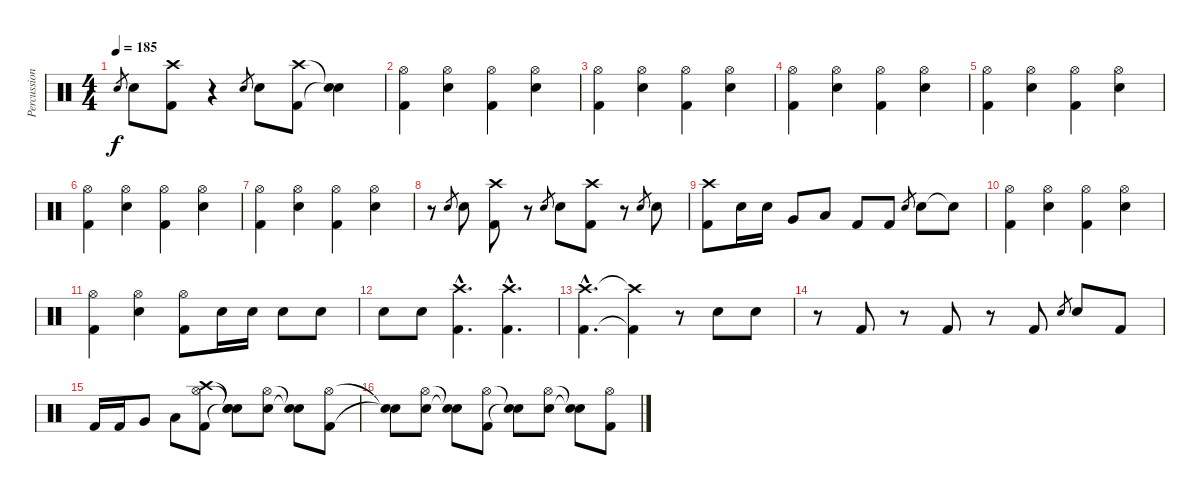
\track ("Percussion" "Percussion") {instrument percussion}
\staff {score}
\articulation defaults
\ts (4 4)
\tempo 185
\clef neutral
\ks c "Electric Snare (hit)".8{gr dy f} "Electric Snare (hit)".8
("Crash high (hit)" "Kick (hit) 2").8 r.4 "Electric Snare (hit)".8{gr} "Electric Snare (hit)".8 ("Crash high (hit)" "Kick (hit) 2").8 ("Snare (hit)"{t} "Snare (hit)"{t}).4 |
("Hi-Hat (open)" "Kick (hit) 2").4 ("Hi-Hat (open)" "Electric Snare (hit)").4 ("Hi-Hat (open)" "Kick (hit) 2").4 ("Hi-Hat (open)" "Electric Snare (hit)").4 |
("Hi-Hat (open)" "Kick (hit) 2").4 ("Hi-Hat (open)" "Electric Snare (hit)").4 ("Hi-Hat (open)" "Kick (hit) 2").4 ("Hi-Hat (open)" "Electric Snare (hit)").4 |
("Hi-Hat (open)" "Kick (hit) 2").4 ("Hi-Hat (open)" "Electric Snare (hit)").4 ("Hi-Hat (open)" "Kick (hit) 2").4 ("Hi-Hat (open)" "Electric Snare (hit)").4 |
("Hi-Hat (open)" "Kick (hit) 2").4 ("Hi-Hat (open)" "Electric Snare (hit)").4 ("Hi-Hat (open)" "Kick (hit) 2").4 ("Hi-Hat (open)" "Electric Snare (hit)").4 |
("Hi-Hat (open)" "Kick (hit) 2").4 ("Hi-Hat (open)" "Electric Snare (hit)").4 ("Hi-Hat (open)" "Kick (hit) 2").4 ("Hi-Hat (open)" "Electric Snare (hit)").4 |
("Hi-Hat (open)" "Kick (hit) 2").4 ("Hi-Hat (open)" "Electric Snare (hit)").4 ("Hi-Hat (open)" "Kick (hit) 2").4 ("Hi-Hat (open)" "Electric Snare (hit)").4 |
r.8 "Electric Snare (hit)".8{gr} "Electric Snare (hit)".8 ("Crash high (hit)" "Kick (hit) 2").8 r.8 "Electric Snare (hit)".8{gr} "Electric Snare (hit)".8 ("Crash high (hit)" "Kick (hit) 2").8 r.8 "Electric Snare (hit)".8{gr} "Electric Snare (hit)".8 |
("Crash high (hit)" "Kick (hit) 2").8 "Electric Snare (hit)".16 "Electric Snare (hit)".16 "Very Low Tom (hit)".8 "Low Floor Tom (hit)".8 "Kick (hit) 2".8 "Kick (hit) 2".8 "Electric Snare (hit)".8{gr} "Electric Snare (hit)".8 "Snare (hit)"{t}.8 |
("Hi-Hat (open)" "Kick (hit) 2").4 ("Hi-Hat (open)" "Electric Snare (hit)").4 ("Hi-Hat (open)" "Kick (hit) 2").4 ("Hi-Hat (open)" "Electric Snare (hit)").4 |
("Hi-Hat (open)" "Kick (hit) 2").4 ("Hi-Hat (open)" "Electric Snare (hit)").4 ("Hi-Hat (open)" "Kick (hit) 2").8 "Electric Snare (hit)".16 "Electric Snare (hit)".16 "Electric Snare (hit)".8 "Electric Snare (hit)".8 |
"Electric Snare (hit)".8 "Electric Snare (hit)".8 ("Crash high (hit)"{hac} "Kick (hit) 2"{hac}).4{d} ("Crash high (hit)"{hac} "Kick (hit) 2"{hac}).4{d} |
("Crash high (hit)"{hac} "Kick (hit) 2"{hac}).4{d} ("Crash high (hit)"{t} "Kick (hit) 2"{t}).4 r.8 "Electric Snare (hit)".8 "Electric Snare (hit)".8 |
r.8 "Kick (hit) 2".8 r.8 "Kick (hit) 2".8 r.8 "Kick (hit) 2".8 "Electric Snare (hit)".8{gr} "Electric Snare (hit)".8 "Kick (hit) 2".8 |
"Kick (hit) 2".16 "Kick (hit) 2".16 "Very Low Tom (hit)".8 "Low Floor Tom (hit)".8 ("Hi-Hat (open)" "Crash high (hit)" "Kick (hit) 2").8 ("Snare (hit)"{t} "Snare (hit)"{t} "Snare (hit)"{t}).8 ("Hi-Hat (open)" "Electric Snare (hit)").8 ("Snare (hit)"{t} "Snare (hit)"{t}).8 ("Hi-Hat (open)" "Kick (hit) 2").8 |
("Snare (hit)"{t} "Snare (hit)"{t}).8 ("Hi-Hat (open)" "Electric Snare (hit)").8 ("Snare (hit)"{t} "Snare (hit)"{t}).8 ("Hi-Hat (open)" "Kick (hit) 2").8 ("Snare (hit)"{t} "Snare (hit)"{t}).8 ("Hi-Hat (open)" "Electric Snare (hit)").8 ("Snare (hit)"{t} "Snare (hit)"{t}).8 ("Hi-Hat (open)" "Kick (hit) 2").8
